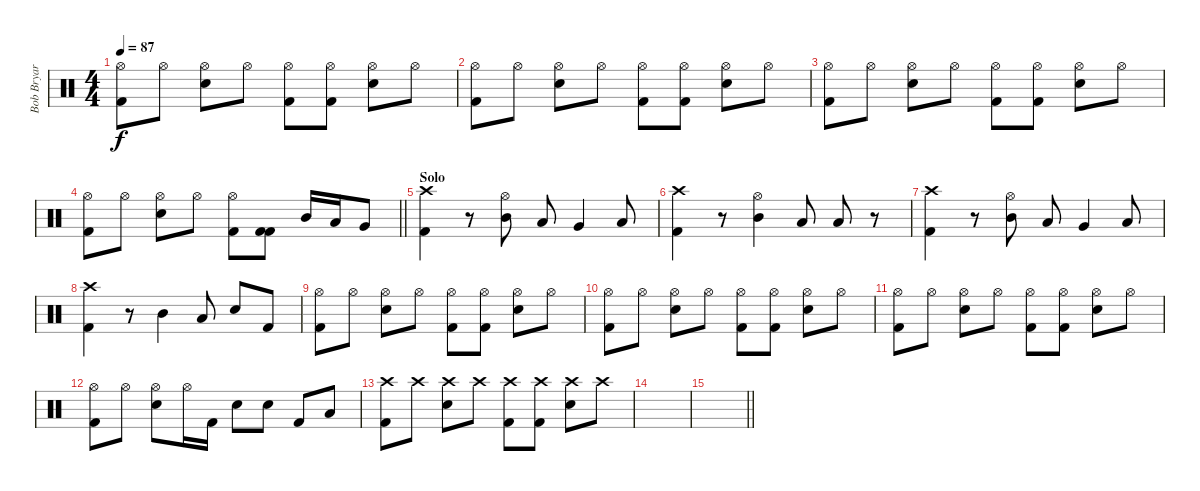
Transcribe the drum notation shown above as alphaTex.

\track ("Bob Bryar" "Bob Bryar") {instrument percussion}
\staff {score}
\articulation defaults
\ts (4 4)
\tempo 87
\clef neutral
\ks c
("Hi-Hat (open)" "Kick (hit) 2").8{dy f} "Hi-Hat (open)".8 ("Hi-Hat (open)" "Electric Snare (hit)").8 "Hi-Hat (open)".8 ("Hi-Hat (open)" "Kick (hit) 2").8 ("Hi-Hat (open)" "Kick (hit) 2").8 ("Hi-Hat (open)" "Electric Snare (hit)").8 "Hi-Hat (open)".8 |
("Hi-Hat (open)" "Kick (hit) 2").8 "Hi-Hat (open)".8 ("Hi-Hat (open)" "Electric Snare (hit)").8 "Hi-Hat (open)".8 ("Hi-Hat (open)" "Kick (hit) 2").8 ("Hi-Hat (open)" "Kick (hit) 2").8 ("Hi-Hat (open)" "Electric Snare (hit)").8 "Hi-Hat (open)".8 |
("Hi-Hat (open)" "Kick (hit) 2").8 "Hi-Hat (open)".8 ("Hi-Hat (open)" "Electric Snare (hit)").8 "Hi-Hat (open)".8 ("Hi-Hat (open)" "Kick (hit) 2").8 ("Hi-Hat (open)" "Kick (hit) 2").8 ("Hi-Hat (open)" "Electric Snare (hit)").8 "Hi-Hat (open)".8 |
\barLineRight lightlight
("Hi-Hat (open)" "Kick (hit) 2").8 "Hi-Hat (open)".8 ("Hi-Hat (open)" "Electric Snare (hit)").8 "Hi-Hat (open)".8 ("Hi-Hat (open)" "Kick (hit) 2").8 ("Kick (hit) 2" "Kick (hit) 2").8 "Mid Tom (hit)".16 "Low Tom (hit)".16 "Very Low Tom (hit)".8 |
\section ("" "Solo")
("Crash high (hit)" "Kick (hit) 2").4 r.8 ("Hi-Hat (open)" "Mid Tom (hit)").8 "Low Tom (hit)".8 "Very Low Tom (hit)".4 "Low Tom (hit)".8 |
("Crash high (hit)" "Kick (hit) 2").4 r.8 ("Hi-Hat (open)" "Mid Tom (hit)").4 "Low Tom (hit)".8 "Low Tom (hit)".8 r.8 |
("Crash high (hit)" "Kick (hit) 2").4 r.8 ("Hi-Hat (open)" "Mid Tom (hit)").8 "Low Tom (hit)".8 "Very Low Tom (hit)".4 "Low Tom (hit)".8 |
("Crash high (hit)" "Kick (hit) 2").4 r.8 "Mid Tom (hit)".4 "Low Tom (hit)".8 "Electric Snare (hit)".8 "Kick (hit) 2".8 |
("Hi-Hat (open)" "Kick (hit) 2").8 "Hi-Hat (open)".8 ("Hi-Hat (open)" "Electric Snare (hit)").8 "Hi-Hat (open)".8 ("Hi-Hat (open)" "Kick (hit) 2").8 ("Hi-Hat (open)" "Kick (hit) 2").8 ("Hi-Hat (open)" "Electric Snare (hit)").8 "Hi-Hat (open)".8 |
("Hi-Hat (open)" "Kick (hit) 2").8 "Hi-Hat (open)".8 ("Hi-Hat (open)" "Electric Snare (hit)").8 "Hi-Hat (open)".8 ("Hi-Hat (open)" "Kick (hit) 2").8 ("Hi-Hat (open)" "Kick (hit) 2").8 ("Hi-Hat (open)" "Electric Snare (hit)").8 "Hi-Hat (open)".8 |
("Hi-Hat (open)" "Kick (hit) 2").8 "Hi-Hat (open)".8 ("Hi-Hat (open)" "Electric Snare (hit)").8 "Hi-Hat (open)".8 ("Hi-Hat (open)" "Kick (hit) 2").8 ("Hi-Hat (open)" "Kick (hit) 2").8 ("Hi-Hat (open)" "Electric Snare (hit)").8 "Hi-Hat (open)".8 |
("Hi-Hat (open)" "Kick (hit) 2").8 "Hi-Hat (open)".8 ("Hi-Hat (open)" "Electric Snare (hit)").8 "Hi-Hat (open)".16 "Kick (hit) 2".16 "Electric Snare (hit)".8 "Electric Snare (hit)".8 "Kick (hit) 2".8 "Low Tom (hit)".8 |
("Crash high (hit)" "Kick (hit) 2").8 "Crash high (hit)".8 ("Crash high (hit)" "Electric Snare (hit)").8 "Crash high (hit)".8 ("Crash high (hit)" "Kick (hit) 2").8 ("Crash high (hit)" "Kick (hit) 2").8 ("Crash high (hit)" "Electric Snare (hit)").8 "Crash high (hit)".8 |
|
\barLineRight lightlight
